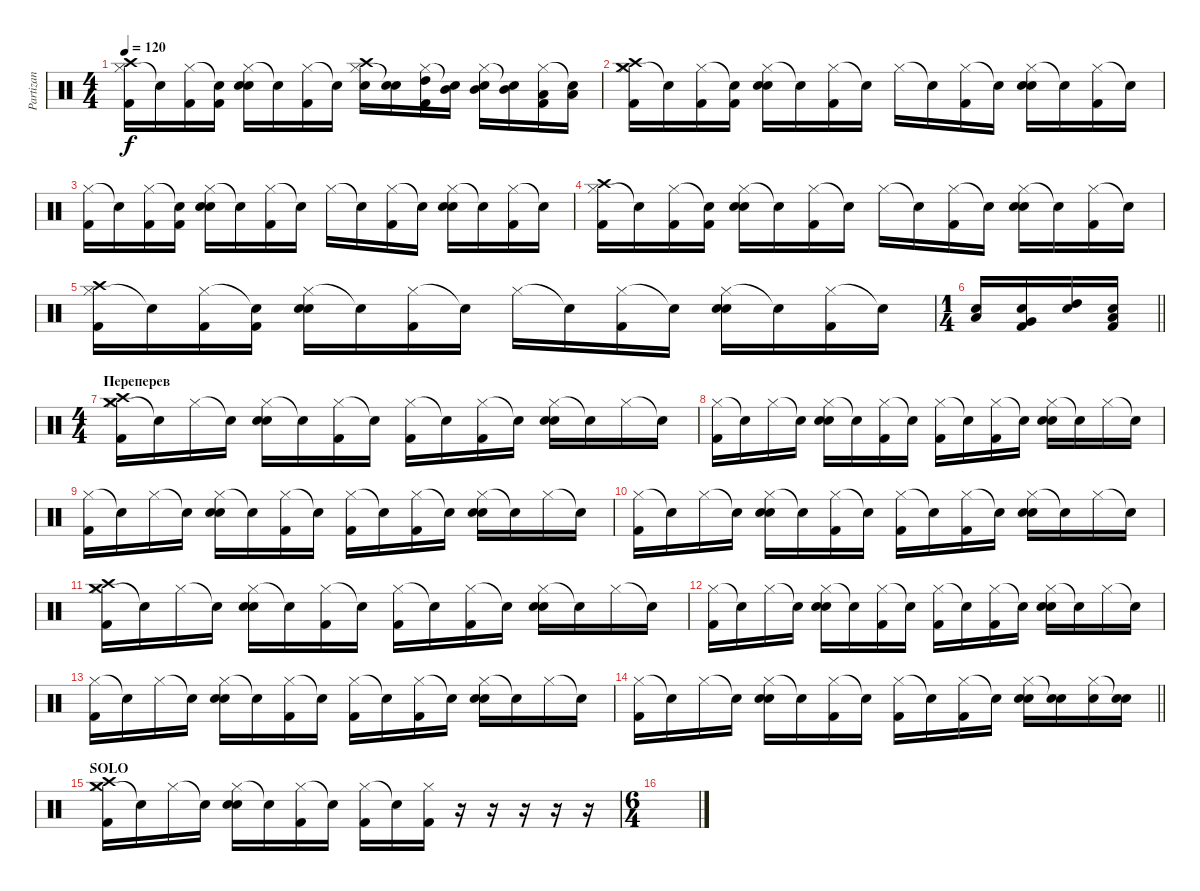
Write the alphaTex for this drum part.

\track ("Partizan" "Partizan") {instrument percussion}
\staff {score}
\articulation defaults
\ts (4 4)
\tempo 120
\clef neutral
\ks c
("Hi-Hat (closed)" "Crash high (hit)" "Kick (hit) 2").16{dy f} "Snare (hit)"{t}.16 ("Hi-Hat (closed)" "Kick (hit) 2").16 ("Snare (hit)"{t} "Kick (hit) 2").16 ("Hi-Hat (closed)" "Electric Snare (hit)" "Snare (hit) 2").16 "Snare (hit)"{t}.16 ("Hi-Hat (closed)" "Kick (hit) 2").16 "Snare (hit)"{t}.16 ("Hi-Hat (closed)" "Crash high (hit)" "Electric Snare (hit)").16 ("Snare (hit)"{t} "Electric Snare (hit)").16 ("Hi-Hat (closed)" "High Tom (hit)" "Kick (hit) 2").16 ("Snare (hit)"{t} "Mid Tom (hit)").16 ("Hi-Hat (closed)" "Electric Snare (hit)" "Mid Tom (hit)").16 ("Snare (hit)"{t} "Mid Tom (hit)").16 ("Hi-Hat (closed)" "Low Tom (hit)" "Kick (hit) 2").16 ("Snare (hit)"{t} "Low Tom (hit)").16 |
("Hi-Hat (closed)" "Crash medium (hit)" "Crash high (hit)" "Kick (hit) 2").16 "Snare (hit)"{t}.16 ("Hi-Hat (closed)" "Kick (hit) 2").16 ("Snare (hit)"{t} "Kick (hit) 2").16 ("Hi-Hat (closed)" "Electric Snare (hit)" "Snare (hit) 2").16 "Snare (hit)"{t}.16 ("Hi-Hat (closed)" "Kick (hit) 2").16 "Snare (hit)"{t}.16 "Hi-Hat (closed)".16 "Snare (hit)"{t}.16 ("Hi-Hat (closed)" "Kick (hit) 2").16 "Snare (hit)"{t}.16 ("Hi-Hat (closed)" "Electric Snare (hit)" "Snare (hit) 2").16 "Snare (hit)"{t}.16 ("Hi-Hat (closed)" "Kick (hit) 2").16 "Snare (hit)"{t}.16 |
("Hi-Hat (closed)" "Kick (hit) 2").16 "Snare (hit)"{t}.16 ("Hi-Hat (closed)" "Kick (hit) 2").16 ("Snare (hit)"{t} "Kick (hit) 2").16 ("Hi-Hat (closed)" "Electric Snare (hit)" "Snare (hit) 2").16 "Snare (hit)"{t}.16 ("Hi-Hat (closed)" "Kick (hit) 2").16 "Snare (hit)"{t}.16 "Hi-Hat (closed)".16 "Snare (hit)"{t}.16 ("Hi-Hat (closed)" "Kick (hit) 2").16 "Snare (hit)"{t}.16 ("Hi-Hat (closed)" "Electric Snare (hit)" "Snare (hit) 2").16 "Snare (hit)"{t}.16 ("Hi-Hat (closed)" "Kick (hit) 2").16 "Snare (hit)"{t}.16 |
("Hi-Hat (closed)" "Crash high (hit)" "Kick (hit) 2").16 "Snare (hit)"{t}.16 ("Hi-Hat (closed)" "Kick (hit) 2").16 ("Snare (hit)"{t} "Kick (hit) 2").16 ("Hi-Hat (closed)" "Electric Snare (hit)" "Snare (hit) 2").16 "Snare (hit)"{t}.16 ("Hi-Hat (closed)" "Kick (hit) 2").16 "Snare (hit)"{t}.16 "Hi-Hat (closed)".16 "Snare (hit)"{t}.16 ("Hi-Hat (closed)" "Kick (hit) 2").16 "Snare (hit)"{t}.16 ("Hi-Hat (closed)" "Electric Snare (hit)" "Snare (hit) 2").16 "Snare (hit)"{t}.16 ("Hi-Hat (closed)" "Kick (hit) 2").16 "Snare (hit)"{t}.16 |
("Hi-Hat (closed)" "Crash high (hit)" "Kick (hit) 2").16 "Snare (hit)"{t}.16 ("Hi-Hat (closed)" "Kick (hit) 2").16 ("Snare (hit)"{t} "Kick (hit) 2").16 ("Hi-Hat (closed)" "Electric Snare (hit)" "Snare (hit) 2").16 "Snare (hit)"{t}.16 ("Hi-Hat (closed)" "Kick (hit) 2").16 "Snare (hit)"{t}.16 "Hi-Hat (closed)".16 "Snare (hit)"{t}.16 ("Hi-Hat (closed)" "Kick (hit) 2").16 "Snare (hit)"{t}.16 ("Hi-Hat (closed)" "Electric Snare (hit)" "Snare (hit) 2").16 "Snare (hit)"{t}.16 ("Hi-Hat (closed)" "Kick (hit) 2").16 "Snare (hit)"{t}.16 |
\ts (1 4)
\barLineRight lightlight
("Low Tom (hit)" "Electric Snare (hit)").16 ("Very Low Tom (hit)" "Electric Snare (hit)" "Kick (hit) 2").16 ("High Tom (hit)" "Electric Snare (hit)").16 ("Low Floor Tom (hit)" "Electric Snare (hit)" "Kick (hit) 2").16 |
\ts (4 4)
\section ("" "Переперев")
("Hi-Hat (closed)" "Crash high (hit)" "Crash medium (hit)" "Kick (hit) 2").16 "Snare (hit)"{t}.16 "Hi-Hat (closed)".16 "Snare (hit)"{t}.16 ("Hi-Hat (closed)" "Electric Snare (hit)" "Snare (hit) 2").16 "Snare (hit)"{t}.16 ("Hi-Hat (closed)" "Kick (hit) 2").16 "Snare (hit)"{t}.16 ("Hi-Hat (closed)" "Kick (hit) 2").16 "Snare (hit)"{t}.16 ("Hi-Hat (closed)" "Kick (hit) 2").16 "Snare (hit)"{t}.16 ("Hi-Hat (closed)" "Electric Snare (hit)" "Snare (hit) 2").16 "Snare (hit)"{t}.16 "Hi-Hat (closed)".16 "Snare (hit)"{t}.16 |
("Hi-Hat (closed)" "Kick (hit) 2").16 "Snare (hit)"{t}.16 "Hi-Hat (closed)".16 "Snare (hit)"{t}.16 ("Hi-Hat (closed)" "Electric Snare (hit)" "Snare (hit) 2").16 "Snare (hit)"{t}.16 ("Hi-Hat (closed)" "Kick (hit) 2").16 "Snare (hit)"{t}.16 ("Hi-Hat (closed)" "Kick (hit) 2").16 "Snare (hit)"{t}.16 ("Hi-Hat (closed)" "Kick (hit) 2").16 "Snare (hit)"{t}.16 ("Hi-Hat (closed)" "Electric Snare (hit)" "Snare (hit) 2").16 "Snare (hit)"{t}.16 "Hi-Hat (closed)".16 "Snare (hit)"{t}.16 |
("Hi-Hat (closed)" "Kick (hit) 2").16 "Snare (hit)"{t}.16 "Hi-Hat (closed)".16 "Snare (hit)"{t}.16 ("Hi-Hat (closed)" "Electric Snare (hit)" "Snare (hit) 2").16 "Snare (hit)"{t}.16 ("Hi-Hat (closed)" "Kick (hit) 2").16 "Snare (hit)"{t}.16 ("Hi-Hat (closed)" "Kick (hit) 2").16 "Snare (hit)"{t}.16 ("Hi-Hat (closed)" "Kick (hit) 2").16 "Snare (hit)"{t}.16 ("Hi-Hat (closed)" "Electric Snare (hit)" "Snare (hit) 2").16 "Snare (hit)"{t}.16 "Hi-Hat (closed)".16 "Snare (hit)"{t}.16 |
("Hi-Hat (closed)" "Kick (hit) 2").16 "Snare (hit)"{t}.16 "Hi-Hat (closed)".16 "Snare (hit)"{t}.16 ("Hi-Hat (closed)" "Electric Snare (hit)" "Snare (hit) 2").16 "Snare (hit)"{t}.16 ("Hi-Hat (closed)" "Kick (hit) 2").16 "Snare (hit)"{t}.16 ("Hi-Hat (closed)" "Kick (hit) 2").16 "Snare (hit)"{t}.16 ("Hi-Hat (closed)" "Kick (hit) 2").16 "Snare (hit)"{t}.16 ("Hi-Hat (closed)" "Electric Snare (hit)" "Snare (hit) 2").16 "Snare (hit)"{t}.16 "Hi-Hat (closed)".16 "Snare (hit)"{t}.16 |
("Hi-Hat (closed)" "Crash high (hit)" "Crash medium (hit)" "Kick (hit) 2").16 "Snare (hit)"{t}.16 "Hi-Hat (closed)".16 "Snare (hit)"{t}.16 ("Hi-Hat (closed)" "Electric Snare (hit)" "Snare (hit) 2").16 "Snare (hit)"{t}.16 ("Hi-Hat (closed)" "Kick (hit) 2").16 "Snare (hit)"{t}.16 ("Hi-Hat (closed)" "Kick (hit) 2").16 "Snare (hit)"{t}.16 ("Hi-Hat (closed)" "Kick (hit) 2").16 "Snare (hit)"{t}.16 ("Hi-Hat (closed)" "Electric Snare (hit)" "Snare (hit) 2").16 "Snare (hit)"{t}.16 "Hi-Hat (closed)".16 "Snare (hit)"{t}.16 |
("Hi-Hat (closed)" "Kick (hit) 2").16 "Snare (hit)"{t}.16 "Hi-Hat (closed)".16 "Snare (hit)"{t}.16 ("Hi-Hat (closed)" "Electric Snare (hit)" "Snare (hit) 2").16 "Snare (hit)"{t}.16 ("Hi-Hat (closed)" "Kick (hit) 2").16 "Snare (hit)"{t}.16 ("Hi-Hat (closed)" "Kick (hit) 2").16 "Snare (hit)"{t}.16 ("Hi-Hat (closed)" "Kick (hit) 2").16 "Snare (hit)"{t}.16 ("Hi-Hat (closed)" "Electric Snare (hit)" "Snare (hit) 2").16 "Snare (hit)"{t}.16 "Hi-Hat (closed)".16 "Snare (hit)"{t}.16 |
("Hi-Hat (closed)" "Kick (hit) 2").16 "Snare (hit)"{t}.16 "Hi-Hat (closed)".16 "Snare (hit)"{t}.16 ("Hi-Hat (closed)" "Electric Snare (hit)" "Snare (hit) 2").16 "Snare (hit)"{t}.16 ("Hi-Hat (closed)" "Kick (hit) 2").16 "Snare (hit)"{t}.16 ("Hi-Hat (closed)" "Kick (hit) 2").16 "Snare (hit)"{t}.16 ("Hi-Hat (closed)" "Kick (hit) 2").16 "Snare (hit)"{t}.16 ("Hi-Hat (closed)" "Electric Snare (hit)" "Snare (hit) 2").16 "Snare (hit)"{t}.16 "Hi-Hat (closed)".16 "Snare (hit)"{t}.16 |
\barLineRight lightlight
("Hi-Hat (closed)" "Kick (hit) 2").16 "Snare (hit)"{t}.16 "Hi-Hat (closed)".16 "Snare (hit)"{t}.16 ("Hi-Hat (closed)" "Electric Snare (hit)" "Snare (hit) 2").16 "Snare (hit)"{t}.16 ("Hi-Hat (closed)" "Kick (hit) 2").16 "Snare (hit)"{t}.16 ("Hi-Hat (closed)" "Kick (hit) 2").16 "Snare (hit)"{t}.16 ("Hi-Hat (closed)" "Kick (hit) 2").16 "Snare (hit)"{t}.16 ("Hi-Hat (closed)" "Electric Snare (hit)" "Snare (hit) 2").16 ("Snare (hit)"{t} "Electric Snare (hit)").16 ("Hi-Hat (closed)" "Electric Snare (hit)").16 ("Snare (hit)"{t} "Electric Snare (hit)").16 |
\section ("" "SOLO")
("Hi-Hat (closed)" "Crash high (hit)" "Crash medium (hit)" "Kick (hit) 2").16 "Snare (hit)"{t}.16 "Hi-Hat (closed)".16 "Snare (hit)"{t}.16 ("Hi-Hat (closed)" "Electric Snare (hit)" "Snare (hit) 2").16 "Snare (hit)"{t}.16 ("Hi-Hat (closed)" "Kick (hit) 2").16 "Snare (hit)"{t}.16 ("Hi-Hat (closed)" "Kick (hit) 2").16 "Snare (hit)"{t}.16 ("Hi-Hat (closed)" "Kick (hit) 2").16 r.16 r.16 r.16 r.16 r.16 |
\ts (6 4)
